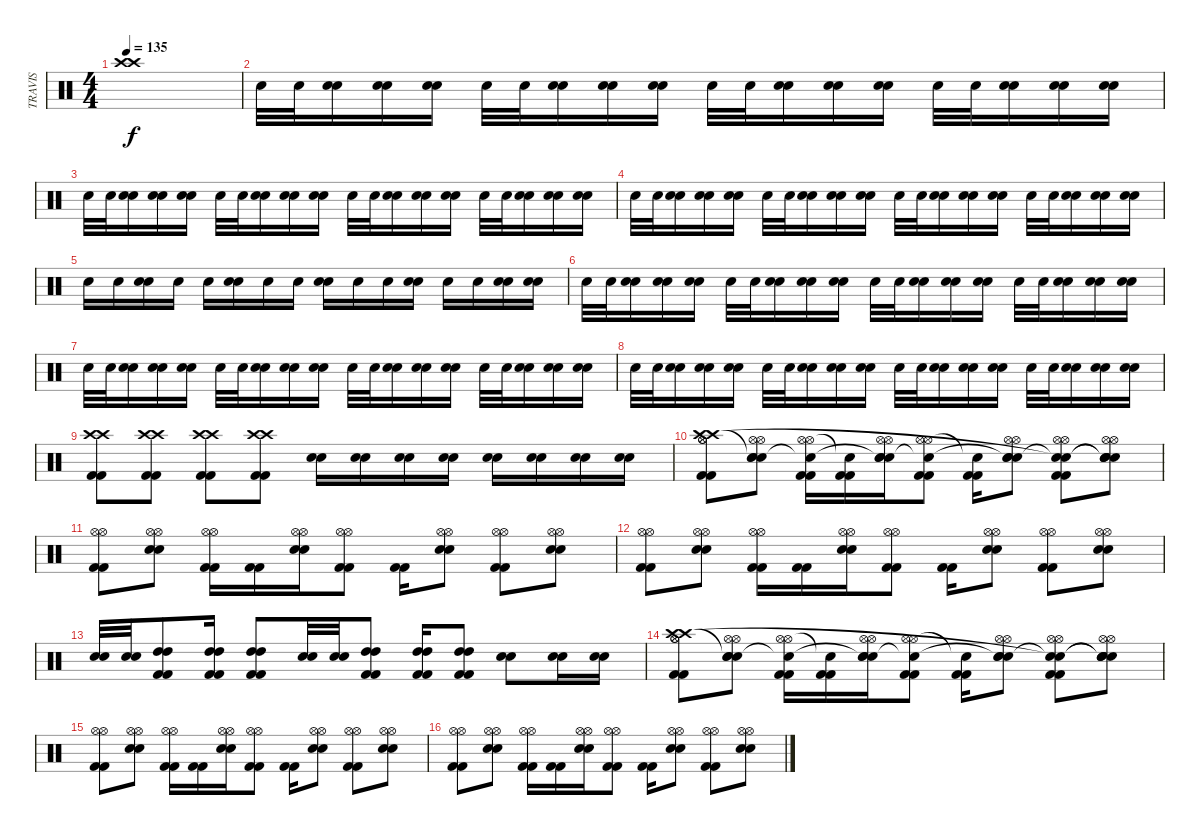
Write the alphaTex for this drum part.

\track ("TRAVIS" "TRAVIS") {instrument percussion}
\staff {score}
\articulation defaults
\ts (4 4)
\tempo 135
\clef neutral
\ks c
("Crash high (hit)"{t} "Crash high (hit)"{t}).1{dy f} |
"Snare (hit) 2".32 "Snare (hit) 2".32 ("Snare (hit) 2" "Snare (hit) 2").16 ("Snare (hit) 2" "Snare (hit) 2").16 ("Snare (hit) 2" "Snare (hit) 2").16 "Snare (hit) 2".32 "Snare (hit) 2".32 ("Snare (hit) 2" "Snare (hit) 2").16 ("Snare (hit) 2" "Snare (hit) 2").16 ("Snare (hit) 2" "Snare (hit) 2").16 "Snare (hit) 2".32 "Snare (hit) 2".32 ("Snare (hit) 2" "Snare (hit) 2").16 ("Snare (hit) 2" "Snare (hit) 2").16 ("Snare (hit) 2" "Snare (hit) 2").16 "Snare (hit) 2".32 "Snare (hit) 2".32 ("Snare (hit) 2" "Snare (hit) 2").16 ("Snare (hit) 2" "Snare (hit) 2").16 ("Snare (hit) 2" "Snare (hit) 2").16 |
"Snare (hit) 2".32 "Snare (hit) 2".32 ("Snare (hit) 2" "Snare (hit) 2").16 ("Snare (hit) 2" "Snare (hit) 2").16 ("Snare (hit) 2" "Snare (hit) 2").16 "Snare (hit) 2".32 "Snare (hit) 2".32 ("Snare (hit) 2" "Snare (hit) 2").16 ("Snare (hit) 2" "Snare (hit) 2").16 ("Snare (hit) 2" "Snare (hit) 2").16 "Snare (hit) 2".32 "Snare (hit) 2".32 ("Snare (hit) 2" "Snare (hit) 2").16 ("Snare (hit) 2" "Snare (hit) 2").16 ("Snare (hit) 2" "Snare (hit) 2").16 "Snare (hit) 2".32 "Snare (hit) 2".32 ("Snare (hit) 2" "Snare (hit) 2").16 ("Snare (hit) 2" "Snare (hit) 2").16 ("Snare (hit) 2" "Snare (hit) 2").16 |
"Snare (hit) 2".32 "Snare (hit) 2".32 ("Snare (hit) 2" "Snare (hit) 2").16 ("Snare (hit) 2" "Snare (hit) 2").16 ("Snare (hit) 2" "Snare (hit) 2").16 "Snare (hit) 2".32 "Snare (hit) 2".32 ("Snare (hit) 2" "Snare (hit) 2").16 ("Snare (hit) 2" "Snare (hit) 2").16 ("Snare (hit) 2" "Snare (hit) 2").16 "Snare (hit) 2".32 "Snare (hit) 2".32 ("Snare (hit) 2" "Snare (hit) 2").16 ("Snare (hit) 2" "Snare (hit) 2").16 ("Snare (hit) 2" "Snare (hit) 2").16 "Snare (hit) 2".32 "Snare (hit) 2".32 ("Snare (hit) 2" "Snare (hit) 2").16 ("Snare (hit) 2" "Snare (hit) 2").16 ("Snare (hit) 2" "Snare (hit) 2").16 |
"Snare (hit) 2".16 "Snare (hit) 2".16 ("Snare (hit) 2" "Snare (hit) 2").16 "Snare (hit) 2".16 "Snare (hit) 2".16 ("Snare (hit) 2" "Snare (hit) 2").16 "Snare (hit) 2".16 "Snare (hit) 2".16 ("Snare (hit) 2" "Snare (hit) 2").16 "Snare (hit) 2".16 "Snare (hit) 2".16 ("Snare (hit) 2" "Snare (hit) 2").16 "Snare (hit) 2".16 "Snare (hit) 2".16 ("Snare (hit) 2" "Snare (hit) 2").16 ("Snare (hit) 2" "Snare (hit) 2").16 |
"Snare (hit) 2".32 "Snare (hit) 2".32 ("Snare (hit) 2" "Snare (hit) 2").16 ("Snare (hit) 2" "Snare (hit) 2").16 ("Snare (hit) 2" "Snare (hit) 2").16 "Snare (hit) 2".32 "Snare (hit) 2".32 ("Snare (hit) 2" "Snare (hit) 2").16 ("Snare (hit) 2" "Snare (hit) 2").16 ("Snare (hit) 2" "Snare (hit) 2").16 "Snare (hit) 2".32 "Snare (hit) 2".32 ("Snare (hit) 2" "Snare (hit) 2").16 ("Snare (hit) 2" "Snare (hit) 2").16 ("Snare (hit) 2" "Snare (hit) 2").16 "Snare (hit) 2".32 "Snare (hit) 2".32 ("Snare (hit) 2" "Snare (hit) 2").16 ("Snare (hit) 2" "Snare (hit) 2").16 ("Snare (hit) 2" "Snare (hit) 2").16 |
"Snare (hit) 2".32 "Snare (hit) 2".32 ("Snare (hit) 2" "Snare (hit) 2").16 ("Snare (hit) 2" "Snare (hit) 2").16 ("Snare (hit) 2" "Snare (hit) 2").16 "Snare (hit) 2".32 "Snare (hit) 2".32 ("Snare (hit) 2" "Snare (hit) 2").16 ("Snare (hit) 2" "Snare (hit) 2").16 ("Snare (hit) 2" "Snare (hit) 2").16 "Snare (hit) 2".32 "Snare (hit) 2".32 ("Snare (hit) 2" "Snare (hit) 2").16 ("Snare (hit) 2" "Snare (hit) 2").16 ("Snare (hit) 2" "Snare (hit) 2").16 "Snare (hit) 2".32 "Snare (hit) 2".32 ("Snare (hit) 2" "Snare (hit) 2").16 ("Snare (hit) 2" "Snare (hit) 2").16 ("Snare (hit) 2" "Snare (hit) 2").16 |
"Snare (hit) 2".32 "Snare (hit) 2".32 ("Snare (hit) 2" "Snare (hit) 2").16 ("Snare (hit) 2" "Snare (hit) 2").16 ("Snare (hit) 2" "Snare (hit) 2").16 "Snare (hit) 2".32 "Snare (hit) 2".32 ("Snare (hit) 2" "Snare (hit) 2").16 ("Snare (hit) 2" "Snare (hit) 2").16 ("Snare (hit) 2" "Snare (hit) 2").16 "Snare (hit) 2".32 "Snare (hit) 2".32 ("Snare (hit) 2" "Snare (hit) 2").16 ("Snare (hit) 2" "Snare (hit) 2").16 ("Snare (hit) 2" "Snare (hit) 2").16 "Snare (hit) 2".32 "Snare (hit) 2".32 ("Snare (hit) 2" "Snare (hit) 2").16 ("Snare (hit) 2" "Snare (hit) 2").16 ("Snare (hit) 2" "Snare (hit) 2").16 |
("Crash high (hit)" "Crash high (hit)" "Kick (hit) 2" "Kick (hit) 2").8 ("Crash high (hit)" "Crash high (hit)" "Kick (hit) 2" "Kick (hit) 2").8 ("Crash high (hit)" "Crash high (hit)" "Kick (hit) 2" "Kick (hit) 2").8 ("Crash high (hit)" "Crash high (hit)" "Kick (hit) 2" "Kick (hit) 2").8 ("Snare (hit) 2" "Snare (hit) 2").16 ("Snare (hit) 2" "Snare (hit) 2").16 ("Snare (hit) 2" "Snare (hit) 2").16 ("Snare (hit) 2" "Snare (hit) 2").16 ("Snare (hit) 2" "Snare (hit) 2").16 ("Snare (hit) 2" "Snare (hit) 2").16 ("Snare (hit) 2" "Snare (hit) 2").16 ("Snare (hit) 2" "Snare (hit) 2").16 |
("Kick (hit) 2" "Kick (hit) 2" "Hi-Hat (open)" "Hi-Hat (open)" "Crash high (hit)" "Crash high (hit)").8 ("Snare (hit) 2" "Snare (hit) 2" "Hi-Hat (open)" "Hi-Hat (open)" "Snare (hit)"{t}).8 ("Kick (hit) 2" "Kick (hit) 2" "Hi-Hat (open)" "Hi-Hat (open)" "Snare (hit)"{t}).16 ("Kick (hit) 2" "Kick (hit) 2" "Snare (hit)"{t}).16 ("Snare (hit) 2" "Snare (hit) 2" "Hi-Hat (open)" "Hi-Hat (open)" "Snare (hit)"{t}).16 ("Kick (hit) 2" "Kick (hit) 2" "Hi-Hat (open)" "Hi-Hat (open)" "Snare (hit)"{t}).8 ("Kick (hit) 2" "Kick (hit) 2" "Snare (hit)"{t}).16 ("Snare (hit) 2" "Snare (hit) 2" "Hi-Hat (open)" "Hi-Hat (open)" "Snare (hit)"{t}).8 ("Kick (hit) 2" "Kick (hit) 2" "Hi-Hat (open)" "Hi-Hat (open)" "Snare (hit)"{t} "Snare (hit)"{t}).8 ("Snare (hit) 2" "Snare (hit) 2" "Hi-Hat (open)" "Hi-Hat (open)" "Snare (hit)"{t} "Snare (hit)"{t}).8 |
("Kick (hit) 2" "Kick (hit) 2" "Hi-Hat (open)" "Hi-Hat (open)").8 ("Snare (hit) 2" "Snare (hit) 2" "Hi-Hat (open)" "Hi-Hat (open)").8 ("Kick (hit) 2" "Kick (hit) 2" "Hi-Hat (open)" "Hi-Hat (open)").16 ("Kick (hit) 2" "Kick (hit) 2").16 ("Snare (hit) 2" "Snare (hit) 2" "Hi-Hat (open)" "Hi-Hat (open)").16 ("Kick (hit) 2" "Kick (hit) 2" "Hi-Hat (open)" "Hi-Hat (open)").8 ("Kick (hit) 2" "Kick (hit) 2").16 ("Snare (hit) 2" "Snare (hit) 2" "Hi-Hat (open)" "Hi-Hat (open)").8 ("Kick (hit) 2" "Kick (hit) 2" "Hi-Hat (open)" "Hi-Hat (open)").8 ("Snare (hit) 2" "Snare (hit) 2" "Hi-Hat (open)" "Hi-Hat (open)").8 |
("Kick (hit) 2" "Kick (hit) 2" "Hi-Hat (open)" "Hi-Hat (open)").8 ("Snare (hit) 2" "Snare (hit) 2" "Hi-Hat (open)" "Hi-Hat (open)").8 ("Kick (hit) 2" "Kick (hit) 2" "Hi-Hat (open)" "Hi-Hat (open)").16 ("Kick (hit) 2" "Kick (hit) 2").16 ("Snare (hit) 2" "Snare (hit) 2" "Hi-Hat (open)" "Hi-Hat (open)").16 ("Kick (hit) 2" "Kick (hit) 2" "Hi-Hat (open)" "Hi-Hat (open)").8 ("Kick (hit) 2" "Kick (hit) 2").16 ("Snare (hit) 2" "Snare (hit) 2" "Hi-Hat (open)" "Hi-Hat (open)").8 ("Kick (hit) 2" "Kick (hit) 2" "Hi-Hat (open)" "Hi-Hat (open)").8 ("Snare (hit) 2" "Snare (hit) 2" "Hi-Hat (open)" "Hi-Hat (open)").8 |
("Snare (hit) 2" "Snare (hit) 2").32 ("Snare (hit) 2" "Snare (hit) 2").32 ("Kick (hit) 2" "Kick (hit) 2" "High Tom (hit)" "High Tom (hit)").8 ("Kick (hit) 2" "Kick (hit) 2" "High Tom (hit)" "High Tom (hit)").16 ("Kick (hit) 2" "Kick (hit) 2" "High Tom (hit)" "High Tom (hit)").8 ("Snare (hit) 2" "Snare (hit) 2").32 ("Snare (hit) 2" "Snare (hit) 2").32 ("Kick (hit) 2" "Kick (hit) 2" "High Tom (hit)" "High Tom (hit)").8 ("Kick (hit) 2" "Kick (hit) 2" "High Tom (hit)" "High Tom (hit)").16 ("Kick (hit) 2" "Kick (hit) 2" "High Tom (hit)" "High Tom (hit)").8 ("Snare (hit) 2" "Snare (hit) 2").8 ("Snare (hit) 2" "Snare (hit) 2").16 ("Snare (hit) 2" "Snare (hit) 2").16 |
("Kick (hit) 2" "Kick (hit) 2" "Hi-Hat (open)" "Hi-Hat (open)" "Crash high (hit)" "Crash high (hit)").8 ("Snare (hit) 2" "Snare (hit) 2" "Hi-Hat (open)" "Hi-Hat (open)" "Snare (hit)"{t}).8 ("Kick (hit) 2" "Kick (hit) 2" "Hi-Hat (open)" "Hi-Hat (open)" "Snare (hit)"{t}).16 ("Kick (hit) 2" "Kick (hit) 2" "Snare (hit)"{t}).16 ("Snare (hit) 2" "Snare (hit) 2" "Hi-Hat (open)" "Hi-Hat (open)" "Snare (hit)"{t}).16 ("Kick (hit) 2" "Kick (hit) 2" "Hi-Hat (open)" "Hi-Hat (open)" "Snare (hit)"{t}).8 ("Kick (hit) 2" "Kick (hit) 2" "Snare (hit)"{t}).16 ("Snare (hit) 2" "Snare (hit) 2" "Hi-Hat (open)" "Hi-Hat (open)" "Snare (hit)"{t}).8 ("Kick (hit) 2" "Kick (hit) 2" "Hi-Hat (open)" "Hi-Hat (open)" "Snare (hit)"{t} "Snare (hit)"{t}).8 ("Snare (hit) 2" "Snare (hit) 2" "Hi-Hat (open)" "Hi-Hat (open)" "Snare (hit)"{t} "Snare (hit)"{t}).8 |
("Kick (hit) 2" "Kick (hit) 2" "Hi-Hat (open)" "Hi-Hat (open)").8 ("Snare (hit) 2" "Snare (hit) 2" "Hi-Hat (open)" "Hi-Hat (open)").8 ("Kick (hit) 2" "Kick (hit) 2" "Hi-Hat (open)" "Hi-Hat (open)").16 ("Kick (hit) 2" "Kick (hit) 2").16 ("Snare (hit) 2" "Snare (hit) 2" "Hi-Hat (open)" "Hi-Hat (open)").16 ("Kick (hit) 2" "Kick (hit) 2" "Hi-Hat (open)" "Hi-Hat (open)").8 ("Kick (hit) 2" "Kick (hit) 2").16 ("Snare (hit) 2" "Snare (hit) 2" "Hi-Hat (open)" "Hi-Hat (open)").8 ("Kick (hit) 2" "Kick (hit) 2" "Hi-Hat (open)" "Hi-Hat (open)").8 ("Snare (hit) 2" "Snare (hit) 2" "Hi-Hat (open)" "Hi-Hat (open)").8 |
("Kick (hit) 2" "Kick (hit) 2" "Hi-Hat (open)" "Hi-Hat (open)").8 ("Snare (hit) 2" "Snare (hit) 2" "Hi-Hat (open)" "Hi-Hat (open)").8 ("Kick (hit) 2" "Kick (hit) 2" "Hi-Hat (open)" "Hi-Hat (open)").16 ("Kick (hit) 2" "Kick (hit) 2").16 ("Snare (hit) 2" "Snare (hit) 2" "Hi-Hat (open)" "Hi-Hat (open)").16 ("Kick (hit) 2" "Kick (hit) 2" "Hi-Hat (open)" "Hi-Hat (open)").8 ("Kick (hit) 2" "Kick (hit) 2").16 ("Snare (hit) 2" "Snare (hit) 2" "Hi-Hat (open)" "Hi-Hat (open)").8 ("Kick (hit) 2" "Kick (hit) 2" "Hi-Hat (open)" "Hi-Hat (open)").8 ("Snare (hit) 2" "Snare (hit) 2" "Hi-Hat (open)" "Hi-Hat (open)").8
